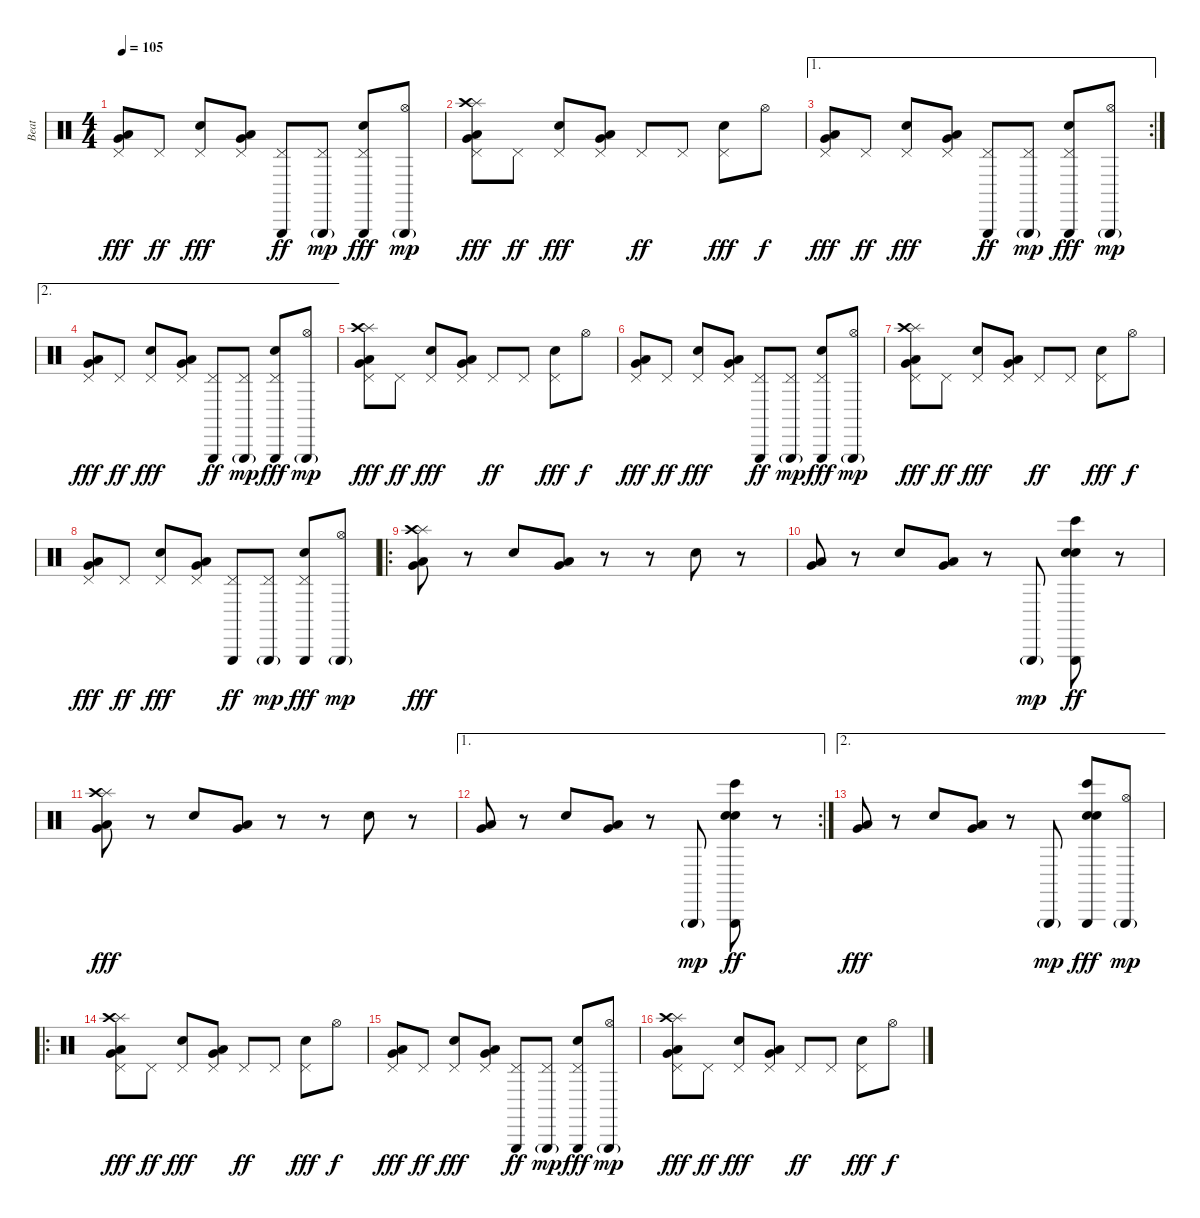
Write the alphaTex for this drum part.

\track ("Beat" "Beat") {instrument percussion}
\staff {score}
\articulation defaults
\ts (4 4)
\tempo 105
\clef neutral
\ks c
("Pedal Hi-Hat (hit)" "Low Floor Tom (hit)" "Very Low Tom (hit)").8{dy fff} "Pedal Hi-Hat (hit)".8{dy ff} ("Pedal Hi-Hat (hit)" "Hand Clap (hit)").8{dy fff} ("Pedal Hi-Hat (hit)" "Low Floor Tom (hit)" "Very Low Tom (hit)").8 ("Pedal Hi-Hat (hit)" "Triangle (hit)").8{dy ff} ("Pedal Hi-Hat (hit)" "Triangle (hit)"{g}).8{dy mp} ("Pedal Hi-Hat (hit)" "Triangle (hit)" "Hand Clap (hit)").8{dy fff} ("Hi-Hat (open)" "Triangle (hit)"{g}).8{dy mp} |
("Pedal Hi-Hat (hit)" "Splash (hit)" "Crash high (hit)" "Low Floor Tom (hit)" "Very Low Tom (hit)").8{dy fff} "Pedal Hi-Hat (hit)".8{dy ff} ("Pedal Hi-Hat (hit)" "Hand Clap (hit)").8{dy fff} ("Pedal Hi-Hat (hit)" "Low Floor Tom (hit)" "Very Low Tom (hit)").8 "Pedal Hi-Hat (hit)".8{dy ff} "Pedal Hi-Hat (hit)".8 ("Pedal Hi-Hat (hit)" "Hand Clap (hit)").8{dy fff} "Hi-Hat (open)".8{dy f} |
\ae 1
\rc 2
("Pedal Hi-Hat (hit)" "Low Floor Tom (hit)" "Very Low Tom (hit)").8{dy fff} "Pedal Hi-Hat (hit)".8{dy ff} ("Pedal Hi-Hat (hit)" "Hand Clap (hit)").8{dy fff} ("Pedal Hi-Hat (hit)" "Low Floor Tom (hit)" "Very Low Tom (hit)").8 ("Pedal Hi-Hat (hit)" "Triangle (hit)").8{dy ff} ("Pedal Hi-Hat (hit)" "Triangle (hit)"{g}).8{dy mp} ("Pedal Hi-Hat (hit)" "Triangle (hit)" "Hand Clap (hit)").8{dy fff} ("Hi-Hat (open)" "Triangle (hit)"{g}).8{dy mp} |
\ae 2
("Pedal Hi-Hat (hit)" "Low Floor Tom (hit)" "Very Low Tom (hit)").8{dy fff} "Pedal Hi-Hat (hit)".8{dy ff} ("Pedal Hi-Hat (hit)" "Hand Clap (hit)").8{dy fff} ("Pedal Hi-Hat (hit)" "Low Floor Tom (hit)" "Very Low Tom (hit)").8 ("Pedal Hi-Hat (hit)" "Triangle (hit)").8{dy ff} ("Pedal Hi-Hat (hit)" "Triangle (hit)"{g}).8{dy mp} ("Pedal Hi-Hat (hit)" "Triangle (hit)" "Hand Clap (hit)").8{dy fff} ("Hi-Hat (open)" "Triangle (hit)"{g}).8{dy mp} |
("Pedal Hi-Hat (hit)" "Splash (hit)" "Crash high (hit)" "Low Floor Tom (hit)" "Very Low Tom (hit)").8{dy fff} "Pedal Hi-Hat (hit)".8{dy ff} ("Pedal Hi-Hat (hit)" "Hand Clap (hit)").8{dy fff} ("Pedal Hi-Hat (hit)" "Low Floor Tom (hit)" "Very Low Tom (hit)").8 "Pedal Hi-Hat (hit)".8{dy ff} "Pedal Hi-Hat (hit)".8 ("Pedal Hi-Hat (hit)" "Hand Clap (hit)").8{dy fff} "Hi-Hat (open)".8{dy f} |
("Pedal Hi-Hat (hit)" "Low Floor Tom (hit)" "Very Low Tom (hit)").8{dy fff} "Pedal Hi-Hat (hit)".8{dy ff} ("Pedal Hi-Hat (hit)" "Hand Clap (hit)").8{dy fff} ("Pedal Hi-Hat (hit)" "Low Floor Tom (hit)" "Very Low Tom (hit)").8 ("Pedal Hi-Hat (hit)" "Triangle (hit)").8{dy ff} ("Pedal Hi-Hat (hit)" "Triangle (hit)"{g}).8{dy mp} ("Pedal Hi-Hat (hit)" "Triangle (hit)" "Hand Clap (hit)").8{dy fff} ("Hi-Hat (open)" "Triangle (hit)"{g}).8{dy mp} |
("Pedal Hi-Hat (hit)" "Splash (hit)" "Crash high (hit)" "Low Floor Tom (hit)" "Very Low Tom (hit)").8{dy fff} "Pedal Hi-Hat (hit)".8{dy ff} ("Pedal Hi-Hat (hit)" "Hand Clap (hit)").8{dy fff} ("Pedal Hi-Hat (hit)" "Low Floor Tom (hit)" "Very Low Tom (hit)").8 "Pedal Hi-Hat (hit)".8{dy ff} "Pedal Hi-Hat (hit)".8 ("Pedal Hi-Hat (hit)" "Hand Clap (hit)").8{dy fff} "Hi-Hat (open)".8{dy f} |
("Pedal Hi-Hat (hit)" "Low Floor Tom (hit)" "Very Low Tom (hit)").8{dy fff} "Pedal Hi-Hat (hit)".8{dy ff} ("Pedal Hi-Hat (hit)" "Hand Clap (hit)").8{dy fff} ("Pedal Hi-Hat (hit)" "Low Floor Tom (hit)" "Very Low Tom (hit)").8 ("Pedal Hi-Hat (hit)" "Triangle (hit)").8{dy ff} ("Pedal Hi-Hat (hit)" "Triangle (hit)"{g}).8{dy mp} ("Pedal Hi-Hat (hit)" "Triangle (hit)" "Hand Clap (hit)").8{dy fff} ("Hi-Hat (open)" "Triangle (hit)"{g}).8{dy mp} |
\ro
("Splash (hit)" "Crash high (hit)" "Low Floor Tom (hit)" "Very Low Tom (hit)").8{dy fff} r.8 "Hand Clap (hit)".8 ("Low Floor Tom (hit)" "Very Low Tom (hit)").8 r.8 r.8 "Hand Clap (hit)".8 r.8 |
("Low Floor Tom (hit)" "Very Low Tom (hit)").8 r.8 "Hand Clap (hit)".8 ("Low Floor Tom (hit)" "Very Low Tom (hit)").8 r.8 "Triangle (hit)"{g}.8{dy mp} ("Hand Clap (hit)" "Triangle (hit)" "Hand Clap (hit)" "Bongo High (hit)").8{dy ff} r.8 |
("Splash (hit)" "Crash high (hit)" "Low Floor Tom (hit)" "Very Low Tom (hit)").8{dy fff} r.8 "Hand Clap (hit)".8 ("Low Floor Tom (hit)" "Very Low Tom (hit)").8 r.8 r.8 "Hand Clap (hit)".8 r.8 |
\ae 1
\rc 2
("Low Floor Tom (hit)" "Very Low Tom (hit)").8 r.8 "Hand Clap (hit)".8 ("Low Floor Tom (hit)" "Very Low Tom (hit)").8 r.8 "Triangle (hit)"{g}.8{dy mp} ("Hand Clap (hit)" "Triangle (hit)" "Hand Clap (hit)" "Bongo High (hit)").8{dy ff} r.8 |
\ae 2
("Low Floor Tom (hit)" "Very Low Tom (hit)").8{dy fff} r.8 "Hand Clap (hit)".8 ("Low Floor Tom (hit)" "Very Low Tom (hit)").8 r.8 "Triangle (hit)"{g}.8{dy mp} ("Hand Clap (hit)" "Triangle (hit)" "Hand Clap (hit)" "Bongo High (hit)").8{dy fff} ("Hi-Hat (open)" "Triangle (hit)"{g}).8{dy mp} |
\ro
("Pedal Hi-Hat (hit)" "Splash (hit)" "Crash high (hit)" "Low Floor Tom (hit)" "Very Low Tom (hit)").8{dy fff} "Pedal Hi-Hat (hit)".8{dy ff} ("Pedal Hi-Hat (hit)" "Hand Clap (hit)").8{dy fff} ("Pedal Hi-Hat (hit)" "Low Floor Tom (hit)" "Very Low Tom (hit)").8 "Pedal Hi-Hat (hit)".8{dy ff} "Pedal Hi-Hat (hit)".8 ("Pedal Hi-Hat (hit)" "Hand Clap (hit)").8{dy fff} "Hi-Hat (open)".8{dy f} |
("Pedal Hi-Hat (hit)" "Low Floor Tom (hit)" "Very Low Tom (hit)").8{dy fff} "Pedal Hi-Hat (hit)".8{dy ff} ("Pedal Hi-Hat (hit)" "Hand Clap (hit)").8{dy fff} ("Pedal Hi-Hat (hit)" "Low Floor Tom (hit)" "Very Low Tom (hit)").8 ("Pedal Hi-Hat (hit)" "Triangle (hit)").8{dy ff} ("Pedal Hi-Hat (hit)" "Triangle (hit)"{g}).8{dy mp} ("Pedal Hi-Hat (hit)" "Triangle (hit)" "Hand Clap (hit)").8{dy fff} ("Hi-Hat (open)" "Triangle (hit)"{g}).8{dy mp} |
("Pedal Hi-Hat (hit)" "Splash (hit)" "Crash high (hit)" "Low Floor Tom (hit)" "Very Low Tom (hit)").8{dy fff} "Pedal Hi-Hat (hit)".8{dy ff} ("Pedal Hi-Hat (hit)" "Hand Clap (hit)").8{dy fff} ("Pedal Hi-Hat (hit)" "Low Floor Tom (hit)" "Very Low Tom (hit)").8 "Pedal Hi-Hat (hit)".8{dy ff} "Pedal Hi-Hat (hit)".8 ("Pedal Hi-Hat (hit)" "Hand Clap (hit)").8{dy fff} "Hi-Hat (open)".8{dy f}
